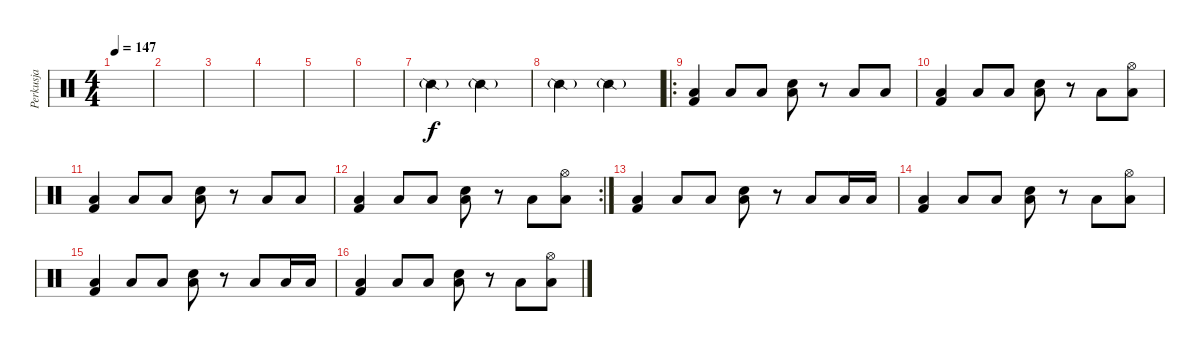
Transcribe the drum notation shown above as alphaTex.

\track ("Perkusja" "Perkusja") {instrument percussion}
\staff {score}
\articulation defaults
\ts (4 4)
\tempo 147
\clef neutral
\ks c
|
|
|
|
|
|
"Snare (side stick) 2"{g}.2 "Snare (side stick) 2"{g}.2 |
"Snare (side stick) 2"{g}.2 "Snare (side stick) 2"{g}.2 |
\ro
("Low Tom (hit)" "Kick (hit) 2").4{dy f} "Low Tom (hit)".8 "Low Tom (hit)".8 ("Low Tom (hit)" "Snare (hit) 2").8 r.8 "Low Tom (hit)".8 "Low Tom (hit)".8 |
("Low Tom (hit)" "Kick (hit) 2").4 "Low Tom (hit)".8 "Low Tom (hit)".8 ("Low Tom (hit)" "Snare (hit) 2").8 r.8 "Low Tom (hit)".8 ("Hi-Hat (open)" "Low Tom (hit)").8 |
("Low Tom (hit)" "Kick (hit) 2").4 "Low Tom (hit)".8 "Low Tom (hit)".8 ("Low Tom (hit)" "Snare (hit) 2").8 r.8 "Low Tom (hit)".8 "Low Tom (hit)".8 |
\rc 2
("Low Tom (hit)" "Kick (hit) 2").4 "Low Tom (hit)".8 "Low Tom (hit)".8 ("Low Tom (hit)" "Snare (hit) 2").8 r.8 "Low Tom (hit)".8 ("Hi-Hat (open)" "Low Tom (hit)").8 |
("Low Tom (hit)" "Kick (hit) 2").4 "Low Tom (hit)".8 "Low Tom (hit)".8 ("Low Tom (hit)" "Snare (hit) 2").8 r.8 "Low Tom (hit)".8 "Low Tom (hit)".16 "Low Tom (hit)".16 |
("Low Tom (hit)" "Kick (hit) 2").4 "Low Tom (hit)".8 "Low Tom (hit)".8 ("Low Tom (hit)" "Snare (hit) 2").8 r.8 "Low Tom (hit)".8 ("Hi-Hat (open)" "Low Tom (hit)").8 |
("Low Tom (hit)" "Kick (hit) 2").4 "Low Tom (hit)".8 "Low Tom (hit)".8 ("Low Tom (hit)" "Snare (hit) 2").8 r.8 "Low Tom (hit)".8 "Low Tom (hit)".16 "Low Tom (hit)".16 |
("Low Tom (hit)" "Kick (hit) 2").4 "Low Tom (hit)".8 "Low Tom (hit)".8 ("Low Tom (hit)" "Snare (hit) 2").8 r.8 "Low Tom (hit)".8 ("Hi-Hat (open)" "Low Tom (hit)").8
